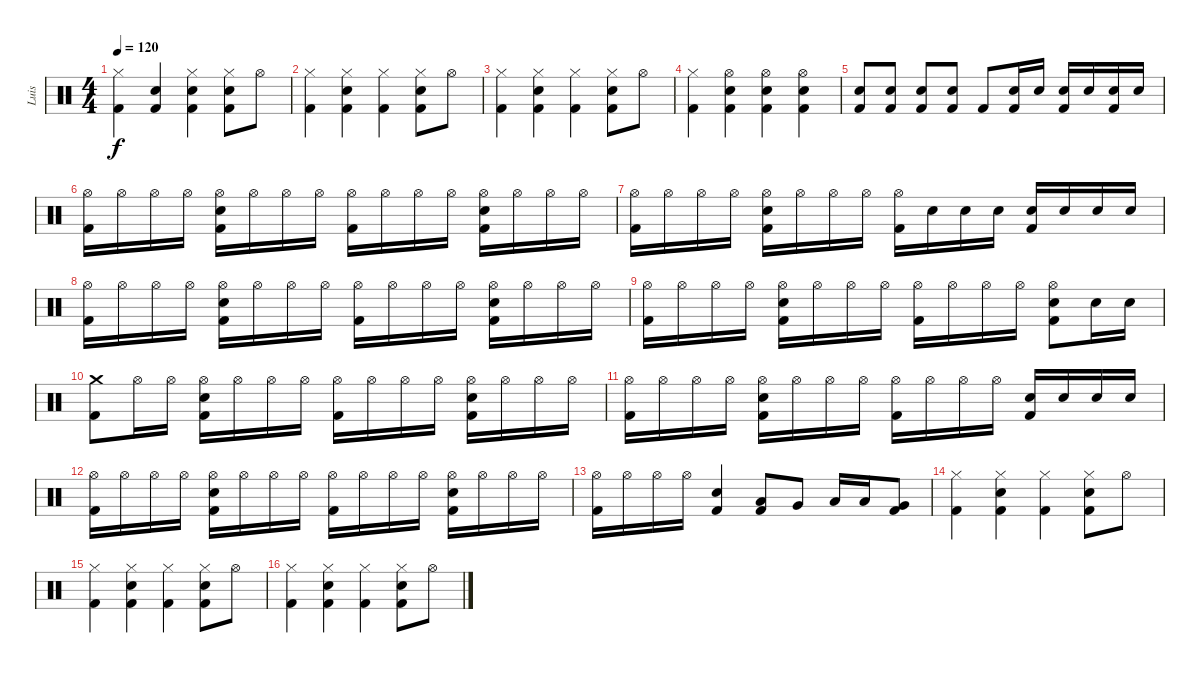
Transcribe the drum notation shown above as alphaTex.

\track ("Luis" "Luis") {instrument percussion}
\staff {score}
\articulation defaults
\ts (4 4)
\tempo 120
\clef neutral
\ks c
("Hi-Hat (closed)" "Kick (hit) 2").4{dy f} ("Electric Snare (hit)" "Kick (hit) 2").4 ("Hi-Hat (closed)" "Electric Snare (hit)" "Kick (hit) 2").4 ("Hi-Hat (closed)" "Electric Snare (hit)" "Kick (hit) 2").8 "Hi-Hat (open)".8 |
("Hi-Hat (closed)" "Kick (hit) 2").4 ("Hi-Hat (closed)" "Electric Snare (hit)" "Kick (hit) 2").4 ("Hi-Hat (closed)" "Kick (hit) 2").4 ("Hi-Hat (closed)" "Electric Snare (hit)" "Kick (hit) 2").8 "Hi-Hat (open)".8 |
("Hi-Hat (closed)" "Kick (hit) 2").4 ("Hi-Hat (closed)" "Electric Snare (hit)" "Kick (hit) 2").4 ("Hi-Hat (closed)" "Kick (hit) 2").4 ("Hi-Hat (closed)" "Electric Snare (hit)" "Kick (hit) 2").8 "Hi-Hat (open)".8 |
("Hi-Hat (closed)" "Kick (hit) 2").4 ("Hi-Hat (open)" "Electric Snare (hit)" "Kick (hit) 2").4 ("Hi-Hat (open)" "Electric Snare (hit)" "Kick (hit) 2").4 ("Hi-Hat (open)" "Electric Snare (hit)" "Kick (hit) 2").4 |
("Electric Snare (hit)" "Kick (hit) 2").8 ("Electric Snare (hit)" "Kick (hit) 2").8 ("Electric Snare (hit)" "Kick (hit) 2").8 ("Electric Snare (hit)" "Kick (hit) 2").8 "Kick (hit) 2".8 ("Electric Snare (hit)" "Kick (hit) 2").16 "Electric Snare (hit)".16 ("Electric Snare (hit)" "Kick (hit) 2").16 "Electric Snare (hit)".16 ("Electric Snare (hit)" "Kick (hit) 2").16 "Electric Snare (hit)".16 |
("Hi-Hat (open)" "Kick (hit) 2").16 "Hi-Hat (open)".16 "Hi-Hat (open)".16 "Hi-Hat (open)".16 ("Hi-Hat (open)" "Electric Snare (hit)" "Kick (hit) 2").16 "Hi-Hat (open)".16 "Hi-Hat (open)".16 "Hi-Hat (open)".16 ("Hi-Hat (open)" "Kick (hit) 2").16 "Hi-Hat (open)".16 "Hi-Hat (open)".16 "Hi-Hat (open)".16 ("Hi-Hat (open)" "Electric Snare (hit)" "Kick (hit) 2").16 "Hi-Hat (open)".16 "Hi-Hat (open)".16 "Hi-Hat (open)".16 |
("Hi-Hat (open)" "Kick (hit) 2").16 "Hi-Hat (open)".16 "Hi-Hat (open)".16 "Hi-Hat (open)".16 ("Hi-Hat (open)" "Electric Snare (hit)" "Kick (hit) 2").16 "Hi-Hat (open)".16 "Hi-Hat (open)".16 "Hi-Hat (open)".16 ("Hi-Hat (open)" "Kick (hit) 2").16 "Electric Snare (hit)".16 "Electric Snare (hit)".16 "Electric Snare (hit)".16 ("Electric Snare (hit)" "Kick (hit) 2").16 "Electric Snare (hit)".16 "Electric Snare (hit)".16 "Electric Snare (hit)".16 |
("Hi-Hat (open)" "Kick (hit) 2").16 "Hi-Hat (open)".16 "Hi-Hat (open)".16 "Hi-Hat (open)".16 ("Hi-Hat (open)" "Electric Snare (hit)" "Kick (hit) 2").16 "Hi-Hat (open)".16 "Hi-Hat (open)".16 "Hi-Hat (open)".16 ("Hi-Hat (open)" "Kick (hit) 2").16 "Hi-Hat (open)".16 "Hi-Hat (open)".16 "Hi-Hat (open)".16 ("Hi-Hat (open)" "Electric Snare (hit)" "Kick (hit) 2").16 "Hi-Hat (open)".16 "Hi-Hat (open)".16 "Hi-Hat (open)".16 |
("Hi-Hat (open)" "Kick (hit) 2").16 "Hi-Hat (open)".16 "Hi-Hat (open)".16 "Hi-Hat (open)".16 ("Hi-Hat (open)" "Electric Snare (hit)" "Kick (hit) 2").16 "Hi-Hat (open)".16 "Hi-Hat (open)".16 "Hi-Hat (open)".16 ("Hi-Hat (open)" "Kick (hit) 2").16 "Hi-Hat (open)".16 "Hi-Hat (open)".16 "Hi-Hat (open)".16 ("Hi-Hat (open)" "Electric Snare (hit)" "Kick (hit) 2").8 "Electric Snare (hit)".16 "Electric Snare (hit)".16 |
("Crash medium (hit)" "Kick (hit) 2").8 "Hi-Hat (open)".16 "Hi-Hat (open)".16 ("Hi-Hat (open)" "Electric Snare (hit)" "Kick (hit) 2").16 "Hi-Hat (open)".16 "Hi-Hat (open)".16 "Hi-Hat (open)".16 ("Hi-Hat (open)" "Kick (hit) 2").16 "Hi-Hat (open)".16 "Hi-Hat (open)".16 "Hi-Hat (open)".16 ("Hi-Hat (open)" "Electric Snare (hit)" "Kick (hit) 2").16 "Hi-Hat (open)".16 "Hi-Hat (open)".16 "Hi-Hat (open)".16 |
("Hi-Hat (open)" "Kick (hit) 2").16 "Hi-Hat (open)".16 "Hi-Hat (open)".16 "Hi-Hat (open)".16 ("Hi-Hat (open)" "Electric Snare (hit)" "Kick (hit) 2").16 "Hi-Hat (open)".16 "Hi-Hat (open)".16 "Hi-Hat (open)".16 ("Hi-Hat (open)" "Kick (hit) 2").16 "Hi-Hat (open)".16 "Hi-Hat (open)".16 "Hi-Hat (open)".16 ("Electric Snare (hit)" "Kick (hit) 2").16 "Electric Snare (hit)".16 "Electric Snare (hit)".16 "Electric Snare (hit)".16 |
("Hi-Hat (open)" "Kick (hit) 2").16 "Hi-Hat (open)".16 "Hi-Hat (open)".16 "Hi-Hat (open)".16 ("Hi-Hat (open)" "Electric Snare (hit)" "Kick (hit) 2").16 "Hi-Hat (open)".16 "Hi-Hat (open)".16 "Hi-Hat (open)".16 ("Hi-Hat (open)" "Kick (hit) 2").16 "Hi-Hat (open)".16 "Hi-Hat (open)".16 "Hi-Hat (open)".16 ("Hi-Hat (open)" "Electric Snare (hit)" "Kick (hit) 2").16 "Hi-Hat (open)".16 "Hi-Hat (open)".16 "Hi-Hat (open)".16 |
("Hi-Hat (open)" "Kick (hit) 2").16 "Hi-Hat (open)".16 "Hi-Hat (open)".16 "Hi-Hat (open)".16 ("Electric Snare (hit)" "Kick (hit) 2").4 ("Low Tom (hit)" "Kick (hit) 2").8 "Very Low Tom (hit)".8 "Low Tom (hit)".16 "Low Tom (hit)".16 ("Very Low Tom (hit)" "Kick (hit) 2").8 |
("Hi-Hat (closed)" "Kick (hit) 2").4 ("Hi-Hat (closed)" "Electric Snare (hit)" "Kick (hit) 2").4 ("Hi-Hat (closed)" "Kick (hit) 2").4 ("Hi-Hat (closed)" "Electric Snare (hit)" "Kick (hit) 2").8 "Hi-Hat (open)".8 |
("Hi-Hat (closed)" "Kick (hit) 2").4 ("Hi-Hat (closed)" "Electric Snare (hit)" "Kick (hit) 2").4 ("Hi-Hat (closed)" "Kick (hit) 2").4 ("Hi-Hat (closed)" "Electric Snare (hit)" "Kick (hit) 2").8 "Hi-Hat (open)".8 |
("Hi-Hat (closed)" "Kick (hit) 2").4 ("Hi-Hat (closed)" "Electric Snare (hit)" "Kick (hit) 2").4 ("Hi-Hat (closed)" "Kick (hit) 2").4 ("Hi-Hat (closed)" "Electric Snare (hit)" "Kick (hit) 2").8 "Hi-Hat (open)".8
